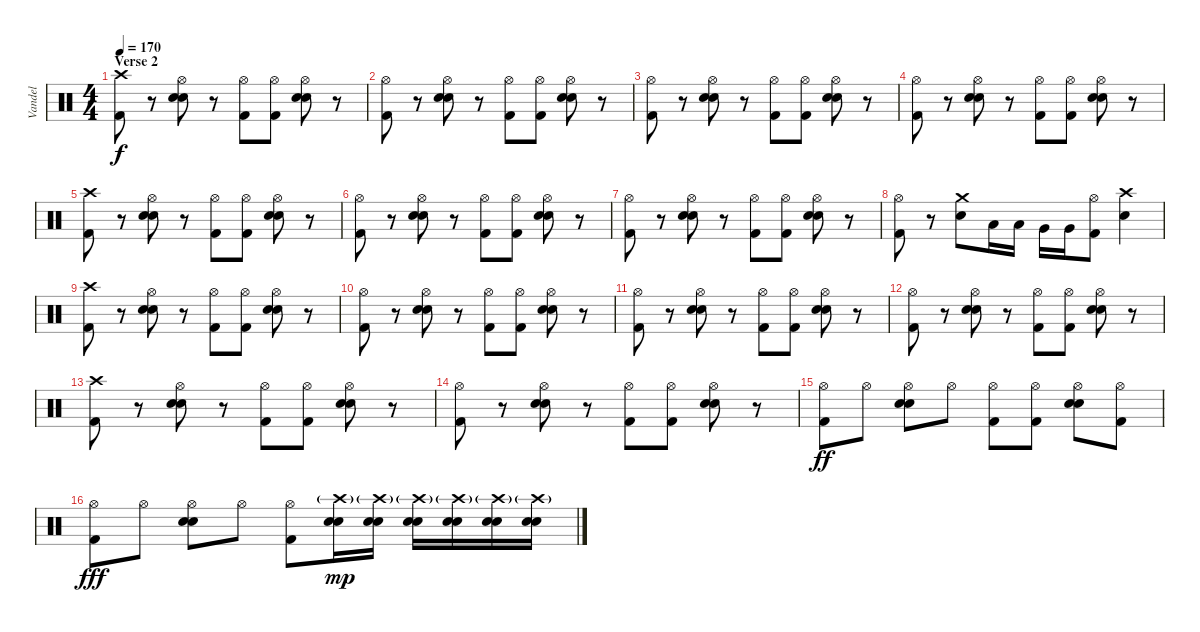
\track ("Vandel" "Vandel") {instrument percussion}
\staff {score}
\articulation defaults
\ts (4 4)
\section ("" "Verse 2")
\tempo 170
\clef neutral
\ks c
("Crash high (hit)" "Kick (hit) 2").8{dy f} r.8 ("Hi-Hat (open)" "Electric Snare (hit)" "Electric Snare (hit)").8 r.8 ("Hi-Hat (open)" "Kick (hit) 2").8 ("Hi-Hat (open)" "Kick (hit) 2").8 ("Hi-Hat (open)" "Electric Snare (hit)" "Electric Snare (hit)").8 r.8 |
("Hi-Hat (open)" "Kick (hit) 2").8 r.8 ("Hi-Hat (open)" "Electric Snare (hit)" "Electric Snare (hit)").8 r.8 ("Hi-Hat (open)" "Kick (hit) 2").8 ("Hi-Hat (open)" "Kick (hit) 2").8 ("Hi-Hat (open)" "Electric Snare (hit)" "Electric Snare (hit)").8 r.8 |
("Hi-Hat (open)" "Kick (hit) 2").8 r.8 ("Hi-Hat (open)" "Electric Snare (hit)" "Electric Snare (hit)").8 r.8 ("Hi-Hat (open)" "Kick (hit) 2").8 ("Hi-Hat (open)" "Kick (hit) 2").8 ("Hi-Hat (open)" "Electric Snare (hit)" "Electric Snare (hit)").8 r.8 |
("Hi-Hat (open)" "Kick (hit) 2").8 r.8 ("Hi-Hat (open)" "Electric Snare (hit)" "Electric Snare (hit)").8 r.8 ("Hi-Hat (open)" "Kick (hit) 2").8 ("Hi-Hat (open)" "Kick (hit) 2").8 ("Hi-Hat (open)" "Electric Snare (hit)" "Electric Snare (hit)").8 r.8 |
("Crash high (hit)" "Kick (hit) 2").8 r.8 ("Hi-Hat (open)" "Electric Snare (hit)" "Electric Snare (hit)").8 r.8 ("Hi-Hat (open)" "Kick (hit) 2").8 ("Hi-Hat (open)" "Kick (hit) 2").8 ("Hi-Hat (open)" "Electric Snare (hit)" "Electric Snare (hit)").8 r.8 |
("Hi-Hat (open)" "Kick (hit) 2").8 r.8 ("Hi-Hat (open)" "Electric Snare (hit)" "Electric Snare (hit)").8 r.8 ("Hi-Hat (open)" "Kick (hit) 2").8 ("Hi-Hat (open)" "Kick (hit) 2").8 ("Hi-Hat (open)" "Electric Snare (hit)" "Electric Snare (hit)").8 r.8 |
("Hi-Hat (open)" "Kick (hit) 2").8 r.8 ("Hi-Hat (open)" "Electric Snare (hit)" "Electric Snare (hit)").8 r.8 ("Hi-Hat (open)" "Kick (hit) 2").8 ("Hi-Hat (open)" "Kick (hit) 2").8 ("Hi-Hat (open)" "Electric Snare (hit)" "Electric Snare (hit)").8 r.8 |
("Hi-Hat (open)" "Kick (hit) 2").8 r.8 ("Crash medium (hit)" "Electric Snare (hit)").8 "Low Tom (hit)".16 "Low Tom (hit)".16 "Very Low Tom (hit)".16 "Very Low Tom (hit)".16 ("Hi-Hat (open)" "Kick (hit) 2").8 ("Crash high (hit)" "Electric Snare (hit)").4 |
("Crash high (hit)" "Kick (hit) 2").8 r.8 ("Hi-Hat (open)" "Electric Snare (hit)" "Electric Snare (hit)").8 r.8 ("Hi-Hat (open)" "Kick (hit) 2").8 ("Hi-Hat (open)" "Kick (hit) 2").8 ("Hi-Hat (open)" "Electric Snare (hit)" "Electric Snare (hit)").8 r.8 |
("Hi-Hat (open)" "Kick (hit) 2").8 r.8 ("Hi-Hat (open)" "Electric Snare (hit)" "Electric Snare (hit)").8 r.8 ("Hi-Hat (open)" "Kick (hit) 2").8 ("Hi-Hat (open)" "Kick (hit) 2").8 ("Hi-Hat (open)" "Electric Snare (hit)" "Electric Snare (hit)").8 r.8 |
("Hi-Hat (open)" "Kick (hit) 2").8 r.8 ("Hi-Hat (open)" "Electric Snare (hit)" "Electric Snare (hit)").8 r.8 ("Hi-Hat (open)" "Kick (hit) 2").8 ("Hi-Hat (open)" "Kick (hit) 2").8 ("Hi-Hat (open)" "Electric Snare (hit)" "Electric Snare (hit)").8 r.8 |
("Hi-Hat (open)" "Kick (hit) 2").8 r.8 ("Hi-Hat (open)" "Electric Snare (hit)" "Electric Snare (hit)").8 r.8 ("Hi-Hat (open)" "Kick (hit) 2").8 ("Hi-Hat (open)" "Kick (hit) 2").8 ("Hi-Hat (open)" "Electric Snare (hit)" "Electric Snare (hit)").8 r.8 |
("Crash high (hit)" "Kick (hit) 2").8 r.8 ("Hi-Hat (open)" "Electric Snare (hit)" "Electric Snare (hit)").8 r.8 ("Hi-Hat (open)" "Kick (hit) 2").8 ("Hi-Hat (open)" "Kick (hit) 2").8 ("Hi-Hat (open)" "Electric Snare (hit)" "Electric Snare (hit)").8 r.8 |
("Hi-Hat (open)" "Kick (hit) 2").8 r.8 ("Hi-Hat (open)" "Electric Snare (hit)" "Electric Snare (hit)").8 r.8 ("Hi-Hat (open)" "Kick (hit) 2").8 ("Hi-Hat (open)" "Kick (hit) 2").8 ("Hi-Hat (open)" "Electric Snare (hit)" "Electric Snare (hit)").8 r.8 |
("Hi-Hat (open)" "Kick (hit) 2").8{dy ff} "Hi-Hat (open)".8 ("Hi-Hat (open)" "Electric Snare (hit)" "Electric Snare (hit)").8 "Hi-Hat (open)".8 ("Hi-Hat (open)" "Kick (hit) 2").8 ("Hi-Hat (open)" "Kick (hit) 2").8 ("Hi-Hat (open)" "Electric Snare (hit)" "Electric Snare (hit)").8 ("Hi-Hat (open)" "Kick (hit) 2").8 |
("Hi-Hat (open)" "Kick (hit) 2").8{dy fff} "Hi-Hat (open)".8 ("Hi-Hat (open)" "Electric Snare (hit)" "Electric Snare (hit)").8 "Hi-Hat (open)".8 ("Hi-Hat (open)" "Kick (hit) 2").8 ("Crash high (hit)"{g} "Electric Snare (hit)" "Electric Snare (hit)").16{dy mp} ("Crash high (hit)"{g} "Electric Snare (hit)" "Electric Snare (hit)").16 ("Crash high (hit)"{g} "Electric Snare (hit)" "Electric Snare (hit)").16 ("Crash high (hit)"{g} "Electric Snare (hit)" "Electric Snare (hit)").16 ("Crash high (hit)"{g} "Electric Snare (hit)" "Electric Snare (hit)").16 ("Crash high (hit)"{g} "Electric Snare (hit)" "Electric Snare (hit)").16
